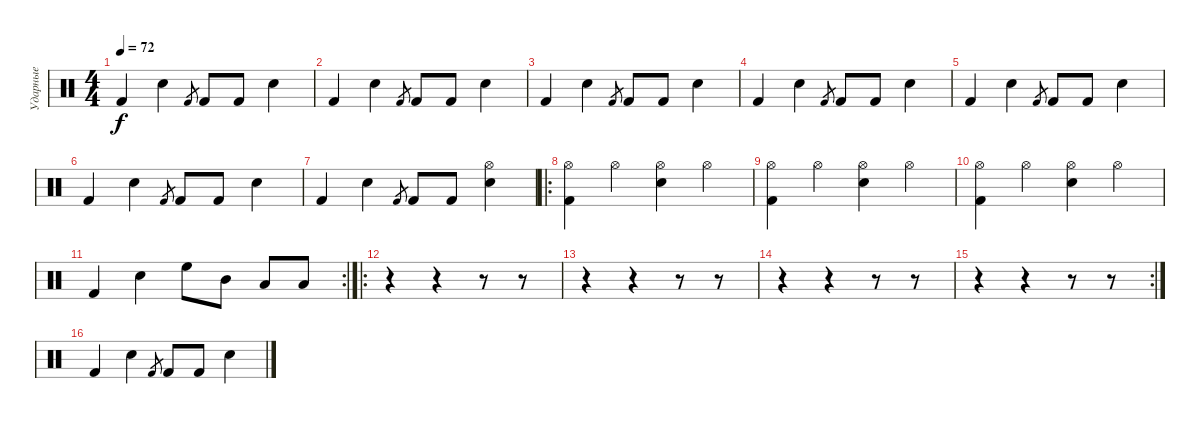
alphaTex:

\track ("Ударные" "Ударные") {instrument percussion}
\staff {score}
\articulation defaults
\ts (4 4)
\tempo 72
\clef neutral
\ks c "Kick (hit) 2".4{dy f} "Snare (hit) 2".4 "Kick (hit) 2".8{gr} "Kick (hit) 2".8 "Kick (hit) 2".8 "Snare (hit) 2".4
|
"Kick (hit) 2".4 "Snare (hit) 2".4 "Kick (hit) 2".8{gr} "Kick (hit) 2".8 "Kick (hit) 2".8 "Snare (hit) 2".4 |
"Kick (hit) 2".4 "Snare (hit) 2".4 "Kick (hit) 2".8{gr} "Kick (hit) 2".8 "Kick (hit) 2".8 "Snare (hit) 2".4 |
"Kick (hit) 2".4 "Snare (hit) 2".4 "Kick (hit) 2".8{gr} "Kick (hit) 2".8 "Kick (hit) 2".8 "Snare (hit) 2".4 |
"Kick (hit) 2".4 "Snare (hit) 2".4 "Kick (hit) 2".8{gr} "Kick (hit) 2".8 "Kick (hit) 2".8 "Snare (hit) 2".4 |
"Kick (hit) 2".4 "Snare (hit) 2".4 "Kick (hit) 2".8{gr} "Kick (hit) 2".8 "Kick (hit) 2".8 "Snare (hit) 2".4 |
"Kick (hit) 2".4 "Snare (hit) 2".4 "Kick (hit) 2".8{gr} "Kick (hit) 2".8 "Kick (hit) 2".8 ("Snare (hit) 2" "Hi-Hat (open)").4 |
\ro
("Kick (hit) 2" "Hi-Hat (open)").4 "Hi-Hat (open)".4 ("Snare (hit) 2" "Hi-Hat (open)").4 "Hi-Hat (open)".4 |
("Kick (hit) 2" "Hi-Hat (open)").4 "Hi-Hat (open)".4 ("Snare (hit) 2" "Hi-Hat (open)").4 "Hi-Hat (open)".4 |
("Kick (hit) 2" "Hi-Hat (open)").4 "Hi-Hat (open)".4 ("Snare (hit) 2" "Hi-Hat (open)").4 "Hi-Hat (open)".4 |
\rc 2 "Kick (hit) 2".4 "Snare (hit) 2".4 "High Floor Tom (hit)".8 "Mid Tom (hit)".8 "Low Tom (hit)".8 "Low Floor Tom (hit)".8
|
\ro
r.4 r.4 r.8 r.8 |
r.4 r.4 r.8 r.8 |
r.4 r.4 r.8 r.8 |
\rc 2
r.4 r.4 r.8 r.8 |
"Kick (hit) 2".4 "Snare (hit) 2".4 "Kick (hit) 2".8{gr} "Kick (hit) 2".8 "Kick (hit) 2".8 "Snare (hit) 2".4
